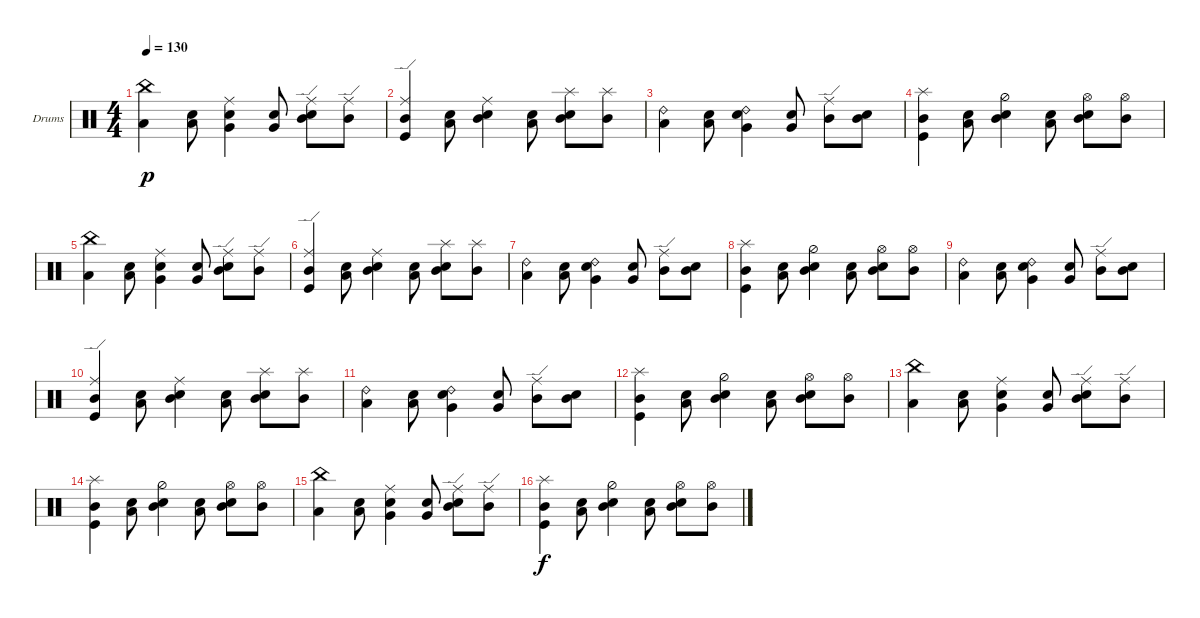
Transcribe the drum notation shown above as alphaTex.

\defaultSystemsLayout 4
\bracketExtendMode groupsimilarinstruments
\firstSystemTrackNameOrientation horizontal
\otherSystemsTrackNameOrientation horizontal
\track ("Drumkit" "Drums") {instrument percussion}
\staff {score}
\articulation defaults
\ts (4 4)
\tempo 130
\clef neutral
\ks c
("Low Tom (hit)" "China (hit)").4{dy p} ("Low Tom (hit)" "Snare (hit) 2").8 ("Very Low Tom (hit)" "Snare (hit) 2" "Ride (middle)").4 ("Very Low Tom (hit)" "Snare (hit) 2").8 ("Mid Tom (hit)" "Snare (hit) 2" "Ride (edge)").8 ("Mid Tom (hit)" "Ride (edge)").8 |
("Mid Tom (hit)" "Kick (hit)" "Ride (edge)").4 ("Low Tom (hit)" "Snare (hit) 2").8 ("Mid Tom (hit)" "Snare (hit) 2" "Ride (middle)").4 ("Low Tom (hit)" "Snare (hit) 2").8 ("Mid Tom (hit)" "Snare (hit) 2" "Splash (hit)").8 ("Mid Tom (hit)" "Splash (hit)").8 |
("Low Tom (hit)" "Ride (bell) 2").4 ("Low Tom (hit)" "Snare (hit) 2").8 ("Very Low Tom (hit)" "Snare (hit) 2" "Ride (bell) 2").4 ("Very Low Tom (hit)" "Snare (hit) 2").8 ("Mid Tom (hit)" "Ride (edge)").8 ("Mid Tom (hit)" "Snare (hit) 2").8 |
("Mid Tom (hit)" "Kick (hit)" "Splash (hit)").4 ("Low Tom (hit)" "Snare (hit) 2").8 ("Mid Tom (hit)" "Snare (hit) 2" "Hi-Hat (half)").4 ("Low Tom (hit)" "Snare (hit) 2").8 ("Mid Tom (hit)" "Snare (hit) 2" "Hi-Hat (open)").8 ("Mid Tom (hit)" "Hi-Hat (open)").8 |
("Low Tom (hit)" "China (hit)").4 ("Low Tom (hit)" "Snare (hit) 2").8 ("Very Low Tom (hit)" "Snare (hit) 2" "Ride (middle)").4 ("Very Low Tom (hit)" "Snare (hit) 2").8 ("Mid Tom (hit)" "Snare (hit) 2" "Ride (edge)").8 ("Mid Tom (hit)" "Ride (edge)").8 |
("Mid Tom (hit)" "Kick (hit)" "Ride (edge)").4 ("Low Tom (hit)" "Snare (hit) 2").8 ("Mid Tom (hit)" "Snare (hit) 2" "Ride (middle)").4 ("Low Tom (hit)" "Snare (hit) 2").8 ("Mid Tom (hit)" "Snare (hit) 2" "Splash (hit)").8 ("Mid Tom (hit)" "Splash (hit)").8 |
("Low Tom (hit)" "Ride (bell) 2").4 ("Low Tom (hit)" "Snare (hit) 2").8 ("Very Low Tom (hit)" "Snare (hit) 2" "Ride (bell) 2").4 ("Very Low Tom (hit)" "Snare (hit) 2").8 ("Mid Tom (hit)" "Ride (edge)").8 ("Mid Tom (hit)" "Snare (hit) 2").8 |
("Mid Tom (hit)" "Kick (hit)" "Splash (hit)").4 ("Low Tom (hit)" "Snare (hit) 2").8 ("Mid Tom (hit)" "Snare (hit) 2" "Hi-Hat (half)").4 ("Low Tom (hit)" "Snare (hit) 2").8 ("Mid Tom (hit)" "Snare (hit) 2" "Hi-Hat (open)").8 ("Mid Tom (hit)" "Hi-Hat (open)").8 |
("Low Tom (hit)" "Ride (bell) 2").4 ("Low Tom (hit)" "Snare (hit) 2").8 ("Very Low Tom (hit)" "Snare (hit) 2" "Ride (bell) 2").4 ("Very Low Tom (hit)" "Snare (hit) 2").8 ("Mid Tom (hit)" "Ride (edge)").8 ("Mid Tom (hit)" "Snare (hit) 2").8 |
("Mid Tom (hit)" "Kick (hit)" "Ride (edge)").4 ("Low Tom (hit)" "Snare (hit) 2").8 ("Mid Tom (hit)" "Snare (hit) 2" "Ride (middle)").4 ("Low Tom (hit)" "Snare (hit) 2").8 ("Mid Tom (hit)" "Snare (hit) 2" "Splash (hit)").8 ("Mid Tom (hit)" "Splash (hit)").8 |
("Low Tom (hit)" "Ride (bell) 2").4 ("Low Tom (hit)" "Snare (hit) 2").8 ("Very Low Tom (hit)" "Snare (hit) 2" "Ride (bell) 2").4 ("Very Low Tom (hit)" "Snare (hit) 2").8 ("Mid Tom (hit)" "Ride (edge)").8 ("Mid Tom (hit)" "Snare (hit) 2").8 |
("Mid Tom (hit)" "Kick (hit)" "Splash (hit)").4 ("Low Tom (hit)" "Snare (hit) 2").8 ("Mid Tom (hit)" "Snare (hit) 2" "Hi-Hat (half)").4 ("Low Tom (hit)" "Snare (hit) 2").8 ("Mid Tom (hit)" "Snare (hit) 2" "Hi-Hat (open)").8 ("Mid Tom (hit)" "Hi-Hat (open)").8 |
("Low Tom (hit)" "China (hit)").4 ("Low Tom (hit)" "Snare (hit) 2").8 ("Very Low Tom (hit)" "Snare (hit) 2" "Ride (middle)").4 ("Very Low Tom (hit)" "Snare (hit) 2").8 ("Mid Tom (hit)" "Snare (hit) 2" "Ride (edge)").8 ("Mid Tom (hit)" "Ride (edge)").8 |
("Mid Tom (hit)" "Kick (hit)" "Splash (hit)").4 ("Low Tom (hit)" "Snare (hit) 2").8 ("Mid Tom (hit)" "Snare (hit) 2" "Hi-Hat (half)").4 ("Low Tom (hit)" "Snare (hit) 2").8 ("Mid Tom (hit)" "Snare (hit) 2" "Hi-Hat (open)").8 ("Mid Tom (hit)" "Hi-Hat (open)").8 |
("Low Tom (hit)" "China (hit)").4 ("Low Tom (hit)" "Snare (hit) 2").8 ("Very Low Tom (hit)" "Snare (hit) 2" "Ride (middle)").4 ("Very Low Tom (hit)" "Snare (hit) 2").8 ("Mid Tom (hit)" "Snare (hit) 2" "Ride (edge)").8 ("Mid Tom (hit)" "Ride (edge)").8 |
("Mid Tom (hit)" "Kick (hit)" "Splash (hit)").4{dy f} ("Low Tom (hit)" "Snare (hit) 2").8 ("Mid Tom (hit)" "Snare (hit) 2" "Hi-Hat (half)").4 ("Low Tom (hit)" "Snare (hit) 2").8 ("Mid Tom (hit)" "Snare (hit) 2" "Hi-Hat (open)").8 ("Mid Tom (hit)" "Hi-Hat (open)").8
